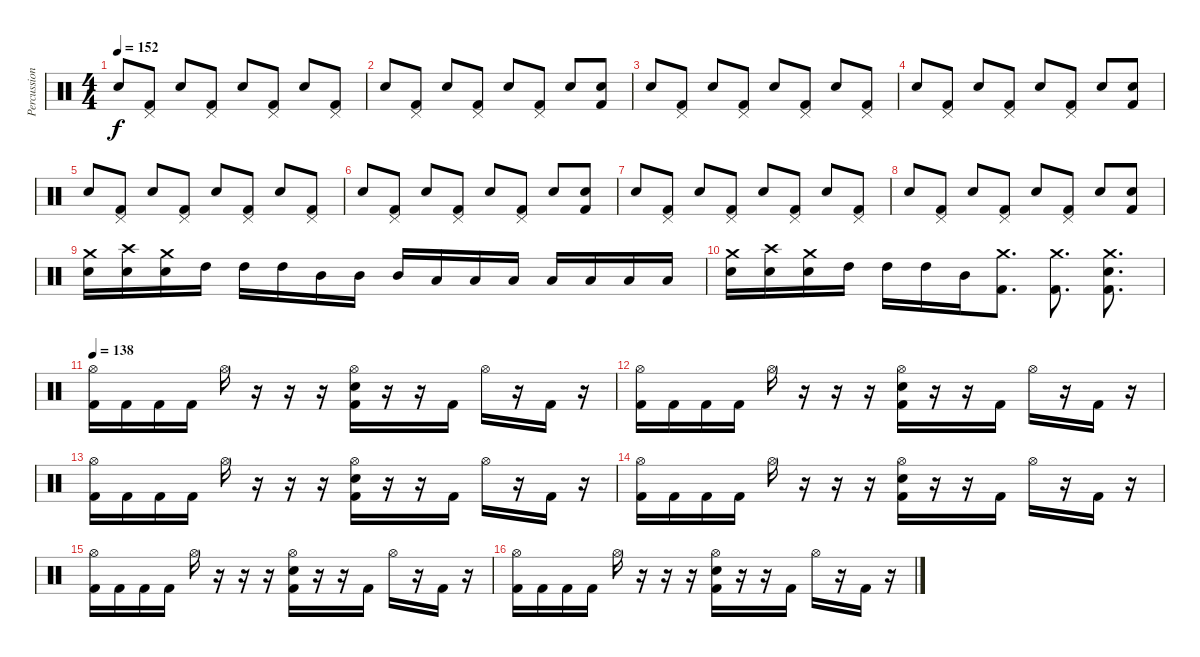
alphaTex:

\track ("Percussion" "Percussion") {instrument percussion}
\staff {score}
\articulation defaults
\ts (4 4)
\tempo 152
\clef neutral
\ks c "Electric Snare (hit)".8{dy f volume 13}
("Pedal Hi-Hat (hit)" "Kick (hit) 2").8 "Electric Snare (hit)".8 ("Pedal Hi-Hat (hit)" "Kick (hit) 2").8 "Electric Snare (hit)".8 ("Pedal Hi-Hat (hit)" "Kick (hit) 2").8 "Electric Snare (hit)".8 ("Pedal Hi-Hat (hit)" "Kick (hit) 2").8 |
"Electric Snare (hit)".8 ("Pedal Hi-Hat (hit)" "Kick (hit) 2").8 "Electric Snare (hit)".8 ("Pedal Hi-Hat (hit)" "Kick (hit) 2").8 "Electric Snare (hit)".8 ("Pedal Hi-Hat (hit)" "Kick (hit) 2").8 "Electric Snare (hit)".8 ("Electric Snare (hit)" "Kick (hit) 2").8 |
"Electric Snare (hit)".8 ("Pedal Hi-Hat (hit)" "Kick (hit) 2").8 "Electric Snare (hit)".8 ("Pedal Hi-Hat (hit)" "Kick (hit) 2").8 "Electric Snare (hit)".8 ("Pedal Hi-Hat (hit)" "Kick (hit) 2").8 "Electric Snare (hit)".8 ("Pedal Hi-Hat (hit)" "Kick (hit) 2").8 |
"Electric Snare (hit)".8 ("Pedal Hi-Hat (hit)" "Kick (hit) 2").8 "Electric Snare (hit)".8 ("Pedal Hi-Hat (hit)" "Kick (hit) 2").8 "Electric Snare (hit)".8 ("Pedal Hi-Hat (hit)" "Kick (hit) 2").8 "Electric Snare (hit)".8 ("Electric Snare (hit)" "Kick (hit) 2").8 |
"Electric Snare (hit)".8 ("Pedal Hi-Hat (hit)" "Kick (hit) 2").8 "Electric Snare (hit)".8 ("Pedal Hi-Hat (hit)" "Kick (hit) 2").8 "Electric Snare (hit)".8 ("Pedal Hi-Hat (hit)" "Kick (hit) 2").8 "Electric Snare (hit)".8 ("Pedal Hi-Hat (hit)" "Kick (hit) 2").8 |
"Electric Snare (hit)".8 ("Pedal Hi-Hat (hit)" "Kick (hit) 2").8 "Electric Snare (hit)".8 ("Pedal Hi-Hat (hit)" "Kick (hit) 2").8 "Electric Snare (hit)".8 ("Pedal Hi-Hat (hit)" "Kick (hit) 2").8 "Electric Snare (hit)".8 ("Electric Snare (hit)" "Kick (hit) 2").8 |
"Electric Snare (hit)".8 ("Pedal Hi-Hat (hit)" "Kick (hit) 2").8 "Electric Snare (hit)".8 ("Pedal Hi-Hat (hit)" "Kick (hit) 2").8 "Electric Snare (hit)".8 ("Pedal Hi-Hat (hit)" "Kick (hit) 2").8 "Electric Snare (hit)".8 ("Pedal Hi-Hat (hit)" "Kick (hit) 2").8 |
"Electric Snare (hit)".8 ("Pedal Hi-Hat (hit)" "Kick (hit) 2").8 "Electric Snare (hit)".8 ("Pedal Hi-Hat (hit)" "Kick (hit) 2").8 "Electric Snare (hit)".8 ("Pedal Hi-Hat (hit)" "Kick (hit) 2").8 "Electric Snare (hit)".8 ("Electric Snare (hit)" "Kick (hit) 2").8 |
("Crash medium (hit)" "Electric Snare (hit)").16 ("Crash high (hit)" "Electric Snare (hit)").16 ("Crash medium (hit)" "Electric Snare (hit)").16 "High Tom (hit)".16 "High Tom (hit)".16 "High Tom (hit)".16 "Mid Tom (hit)".16 "Mid Tom (hit)".16 "Mid Tom (hit)".16 "Low Tom (hit)".16 "Low Tom (hit)".16 "Low Tom (hit)".16 "Low Floor Tom (hit)".16 "Low Floor Tom (hit)".16 "Low Floor Tom (hit)".16 "Low Floor Tom (hit)".16 |
("Crash medium (hit)" "Electric Snare (hit)").16 ("Crash high (hit)" "Electric Snare (hit)").16 ("Crash medium (hit)" "Electric Snare (hit)").16 "High Tom (hit)".16 "High Tom (hit)".16 "High Tom (hit)".16 "Mid Tom (hit)".16 ("Crash medium (hit)" "Kick (hit) 2").8{d} ("Crash medium (hit)" "Kick (hit) 2").8{d} ("Crash medium (hit)" "Electric Snare (hit)" "Kick (hit) 2").8{d} |
\tempo 138
("Hi-Hat (open)" "Kick (hit) 2").16 "Kick (hit) 2".16 "Kick (hit) 2".16 "Kick (hit) 2".16 "Hi-Hat (open)".16 r.16 r.16 r.16 ("Hi-Hat (open)" "Electric Snare (hit)" "Kick (hit) 2").16 r.16 r.16 "Kick (hit) 2".16 "Hi-Hat (open)".16 r.16 "Kick (hit) 2".16 r.16 |
("Hi-Hat (open)" "Kick (hit) 2").16 "Kick (hit) 2".16 "Kick (hit) 2".16 "Kick (hit) 2".16 "Hi-Hat (open)".16 r.16 r.16 r.16 ("Hi-Hat (open)" "Electric Snare (hit)" "Kick (hit) 2").16 r.16 r.16 "Kick (hit) 2".16 "Hi-Hat (open)".16 r.16 "Kick (hit) 2".16 r.16 |
("Hi-Hat (open)" "Kick (hit) 2").16 "Kick (hit) 2".16 "Kick (hit) 2".16 "Kick (hit) 2".16 "Hi-Hat (open)".16 r.16 r.16 r.16 ("Hi-Hat (open)" "Electric Snare (hit)" "Kick (hit) 2").16 r.16 r.16 "Kick (hit) 2".16 "Hi-Hat (open)".16 r.16 "Kick (hit) 2".16 r.16 |
("Hi-Hat (open)" "Kick (hit) 2").16 "Kick (hit) 2".16 "Kick (hit) 2".16 "Kick (hit) 2".16 "Hi-Hat (open)".16 r.16 r.16 r.16 ("Hi-Hat (open)" "Electric Snare (hit)" "Kick (hit) 2").16 r.16 r.16 "Kick (hit) 2".16 "Hi-Hat (open)".16 r.16 "Kick (hit) 2".16 r.16 |
("Hi-Hat (open)" "Kick (hit) 2").16 "Kick (hit) 2".16 "Kick (hit) 2".16 "Kick (hit) 2".16 "Hi-Hat (open)".16 r.16 r.16 r.16 ("Hi-Hat (open)" "Electric Snare (hit)" "Kick (hit) 2").16 r.16 r.16 "Kick (hit) 2".16 "Hi-Hat (open)".16 r.16 "Kick (hit) 2".16 r.16 |
("Hi-Hat (open)" "Kick (hit) 2").16 "Kick (hit) 2".16 "Kick (hit) 2".16 "Kick (hit) 2".16 "Hi-Hat (open)".16 r.16 r.16 r.16 ("Hi-Hat (open)" "Electric Snare (hit)" "Kick (hit) 2").16 r.16 r.16 "Kick (hit) 2".16 "Hi-Hat (open)".16 r.16 "Kick (hit) 2".16 r.16
